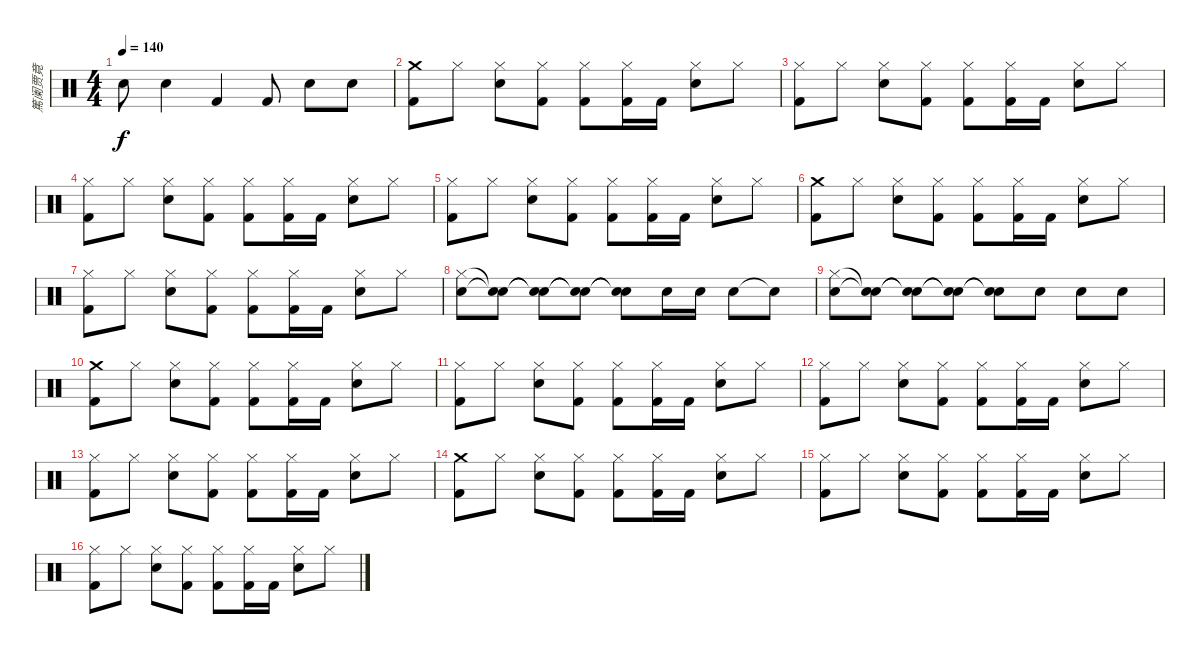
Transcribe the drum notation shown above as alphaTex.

\track ("篤阑贾竟" "篤阑贾竟") {instrument percussion}
\staff {score}
\articulation defaults
\ts (4 4)
\tempo 140
\clef neutral
\ks c "Snare (hit) 2".8{dy f} "Snare (hit) 2".4 "Kick (hit) 2".4 "Kick (hit) 2".8 "Snare (hit) 2".8 "Snare (hit) 2".8
|
("Crash medium (hit)" "Kick (hit) 2").8 "Hi-Hat (closed)".8 ("Hi-Hat (closed)" "Snare (hit) 2").8 ("Hi-Hat (closed)" "Kick (hit) 2").8 ("Hi-Hat (closed)" "Kick (hit) 2").8 ("Hi-Hat (closed)" "Kick (hit) 2").16 "Kick (hit) 2".16 ("Hi-Hat (closed)" "Snare (hit) 2").8 "Hi-Hat (closed)".8 |
("Hi-Hat (closed)" "Kick (hit) 2").8 "Hi-Hat (closed)".8 ("Hi-Hat (closed)" "Snare (hit) 2").8 ("Hi-Hat (closed)" "Kick (hit) 2").8 ("Hi-Hat (closed)" "Kick (hit) 2").8 ("Hi-Hat (closed)" "Kick (hit) 2").16 "Kick (hit) 2".16 ("Hi-Hat (closed)" "Snare (hit) 2").8 "Hi-Hat (closed)".8 |
("Hi-Hat (closed)" "Kick (hit) 2").8 "Hi-Hat (closed)".8 ("Hi-Hat (closed)" "Snare (hit) 2").8 ("Hi-Hat (closed)" "Kick (hit) 2").8 ("Hi-Hat (closed)" "Kick (hit) 2").8 ("Hi-Hat (closed)" "Kick (hit) 2").16 "Kick (hit) 2".16 ("Hi-Hat (closed)" "Snare (hit) 2").8 "Hi-Hat (closed)".8 |
("Hi-Hat (closed)" "Kick (hit) 2").8 "Hi-Hat (closed)".8 ("Hi-Hat (closed)" "Snare (hit) 2").8 ("Hi-Hat (closed)" "Kick (hit) 2").8 ("Hi-Hat (closed)" "Kick (hit) 2").8 ("Hi-Hat (closed)" "Kick (hit) 2").16 "Kick (hit) 2".16 ("Hi-Hat (closed)" "Snare (hit) 2").8 "Hi-Hat (closed)".8 |
("Crash medium (hit)" "Kick (hit) 2").8 "Hi-Hat (closed)".8 ("Hi-Hat (closed)" "Snare (hit) 2").8 ("Hi-Hat (closed)" "Kick (hit) 2").8 ("Hi-Hat (closed)" "Kick (hit) 2").8 ("Hi-Hat (closed)" "Kick (hit) 2").16 "Kick (hit) 2".16 ("Hi-Hat (closed)" "Snare (hit) 2").8 "Hi-Hat (closed)".8 |
("Hi-Hat (closed)" "Kick (hit) 2").8 "Hi-Hat (closed)".8 ("Hi-Hat (closed)" "Snare (hit) 2").8 ("Hi-Hat (closed)" "Kick (hit) 2").8 ("Hi-Hat (closed)" "Kick (hit) 2").8 ("Hi-Hat (closed)" "Kick (hit) 2").16 "Kick (hit) 2".16 ("Hi-Hat (closed)" "Snare (hit) 2").8 "Hi-Hat (closed)".8 |
("Hi-Hat (closed)" "Snare (hit) 2").8 ("Snare (hit)"{t} "Snare (hit)"{t}).8 ("Snare (hit)"{t} "Snare (hit)"{t}).8 ("Snare (hit)"{t} "Snare (hit)"{t}).8 ("Snare (hit)"{t} "Snare (hit)"{t}).8 "Snare (hit) 2".16 "Snare (hit) 2".16 "Snare (hit) 2".8 "Snare (hit)"{t}.8 |
("Hi-Hat (closed)" "Snare (hit) 2").8 ("Snare (hit)"{t} "Snare (hit)"{t}).8 ("Snare (hit)"{t} "Snare (hit)"{t}).8 ("Snare (hit)"{t} "Snare (hit)"{t}).8 ("Snare (hit)"{t} "Snare (hit)"{t}).8 "Snare (hit) 2".8 "Snare (hit) 2".8 "Snare (hit) 2".8 |
("Crash medium (hit)" "Kick (hit) 2").8 "Hi-Hat (closed)".8 ("Hi-Hat (closed)" "Snare (hit) 2").8 ("Hi-Hat (closed)" "Kick (hit) 2").8 ("Hi-Hat (closed)" "Kick (hit) 2").8 ("Hi-Hat (closed)" "Kick (hit) 2").16 "Kick (hit) 2".16 ("Hi-Hat (closed)" "Snare (hit) 2").8 "Hi-Hat (closed)".8 |
("Hi-Hat (closed)" "Kick (hit) 2").8 "Hi-Hat (closed)".8 ("Hi-Hat (closed)" "Snare (hit) 2").8 ("Hi-Hat (closed)" "Kick (hit) 2").8 ("Hi-Hat (closed)" "Kick (hit) 2").8 ("Hi-Hat (closed)" "Kick (hit) 2").16 "Kick (hit) 2".16 ("Hi-Hat (closed)" "Snare (hit) 2").8 "Hi-Hat (closed)".8 |
("Hi-Hat (closed)" "Kick (hit) 2").8 "Hi-Hat (closed)".8 ("Hi-Hat (closed)" "Snare (hit) 2").8 ("Hi-Hat (closed)" "Kick (hit) 2").8 ("Hi-Hat (closed)" "Kick (hit) 2").8 ("Hi-Hat (closed)" "Kick (hit) 2").16 "Kick (hit) 2".16 ("Hi-Hat (closed)" "Snare (hit) 2").8 "Hi-Hat (closed)".8 |
("Hi-Hat (closed)" "Kick (hit) 2").8 "Hi-Hat (closed)".8 ("Hi-Hat (closed)" "Snare (hit) 2").8 ("Hi-Hat (closed)" "Kick (hit) 2").8 ("Hi-Hat (closed)" "Kick (hit) 2").8 ("Hi-Hat (closed)" "Kick (hit) 2").16 "Kick (hit) 2".16 ("Hi-Hat (closed)" "Snare (hit) 2").8 "Hi-Hat (closed)".8 |
("Crash medium (hit)" "Kick (hit) 2").8 "Hi-Hat (closed)".8 ("Hi-Hat (closed)" "Snare (hit) 2").8 ("Hi-Hat (closed)" "Kick (hit) 2").8 ("Hi-Hat (closed)" "Kick (hit) 2").8 ("Hi-Hat (closed)" "Kick (hit) 2").16 "Kick (hit) 2".16 ("Hi-Hat (closed)" "Snare (hit) 2").8 "Hi-Hat (closed)".8 |
("Hi-Hat (closed)" "Kick (hit) 2").8 "Hi-Hat (closed)".8 ("Hi-Hat (closed)" "Snare (hit) 2").8 ("Hi-Hat (closed)" "Kick (hit) 2").8 ("Hi-Hat (closed)" "Kick (hit) 2").8 ("Hi-Hat (closed)" "Kick (hit) 2").16 "Kick (hit) 2".16 ("Hi-Hat (closed)" "Snare (hit) 2").8 "Hi-Hat (closed)".8 |
("Hi-Hat (closed)" "Kick (hit) 2").8 "Hi-Hat (closed)".8 ("Hi-Hat (closed)" "Snare (hit) 2").8 ("Hi-Hat (closed)" "Kick (hit) 2").8 ("Hi-Hat (closed)" "Kick (hit) 2").8 ("Hi-Hat (closed)" "Kick (hit) 2").16 "Kick (hit) 2".16 ("Hi-Hat (closed)" "Snare (hit) 2").8 "Hi-Hat (closed)".8
